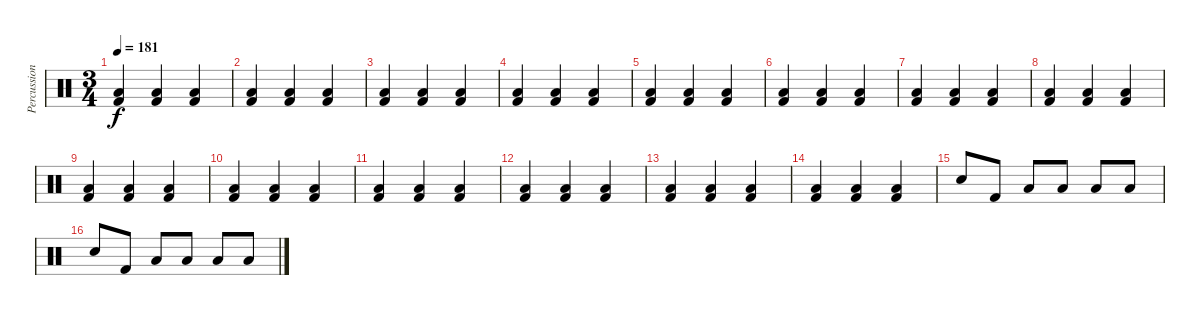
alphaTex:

\track ("Percussion" "Percussion") {instrument percussion}
\staff {score}
\articulation defaults
\ts (3 4)
\tempo 181
\clef neutral
\ks c
("Low Tom (hit)" "Kick (hit) 2").4{dy f} ("Low Tom (hit)" "Kick (hit) 2").4 ("Low Tom (hit)" "Kick (hit) 2").4 |
("Low Tom (hit)" "Kick (hit) 2").4 ("Low Tom (hit)" "Kick (hit) 2").4 ("Low Tom (hit)" "Kick (hit) 2").4 |
("Low Tom (hit)" "Kick (hit) 2").4 ("Low Tom (hit)" "Kick (hit) 2").4 ("Low Tom (hit)" "Kick (hit) 2").4 |
("Low Tom (hit)" "Kick (hit) 2").4 ("Low Tom (hit)" "Kick (hit) 2").4 ("Low Tom (hit)" "Kick (hit) 2").4 |
("Low Tom (hit)" "Kick (hit) 2").4 ("Low Tom (hit)" "Kick (hit) 2").4 ("Low Tom (hit)" "Kick (hit) 2").4 |
("Low Tom (hit)" "Kick (hit) 2").4 ("Low Tom (hit)" "Kick (hit) 2").4 ("Low Tom (hit)" "Kick (hit) 2").4 |
("Low Tom (hit)" "Kick (hit) 2").4 ("Low Tom (hit)" "Kick (hit) 2").4 ("Low Tom (hit)" "Kick (hit) 2").4 |
("Low Tom (hit)" "Kick (hit) 2").4 ("Low Tom (hit)" "Kick (hit) 2").4 ("Low Tom (hit)" "Kick (hit) 2").4 |
("Low Tom (hit)" "Kick (hit) 2").4 ("Low Tom (hit)" "Kick (hit) 2").4 ("Low Tom (hit)" "Kick (hit) 2").4 |
("Low Tom (hit)" "Kick (hit) 2").4 ("Low Tom (hit)" "Kick (hit) 2").4 ("Low Tom (hit)" "Kick (hit) 2").4 |
("Low Tom (hit)" "Kick (hit) 2").4 ("Low Tom (hit)" "Kick (hit) 2").4 ("Low Tom (hit)" "Kick (hit) 2").4 |
("Low Tom (hit)" "Kick (hit) 2").4 ("Low Tom (hit)" "Kick (hit) 2").4 ("Low Tom (hit)" "Kick (hit) 2").4 |
("Low Tom (hit)" "Kick (hit) 2").4 ("Low Tom (hit)" "Kick (hit) 2").4 ("Low Tom (hit)" "Kick (hit) 2").4 |
("Low Tom (hit)" "Kick (hit) 2").4 ("Low Tom (hit)" "Kick (hit) 2").4 ("Low Tom (hit)" "Kick (hit) 2").4 |
"Snare (hit) 2".8 "Kick (hit) 2".8 "Low Floor Tom (hit)".8 "Low Floor Tom (hit)".8 "Low Floor Tom (hit)".8 "Low Floor Tom (hit)".8 |
"Snare (hit) 2".8 "Kick (hit) 2".8 "Low Floor Tom (hit)".8 "Low Floor Tom (hit)".8 "Low Floor Tom (hit)".8 "Low Floor Tom (hit)".8
